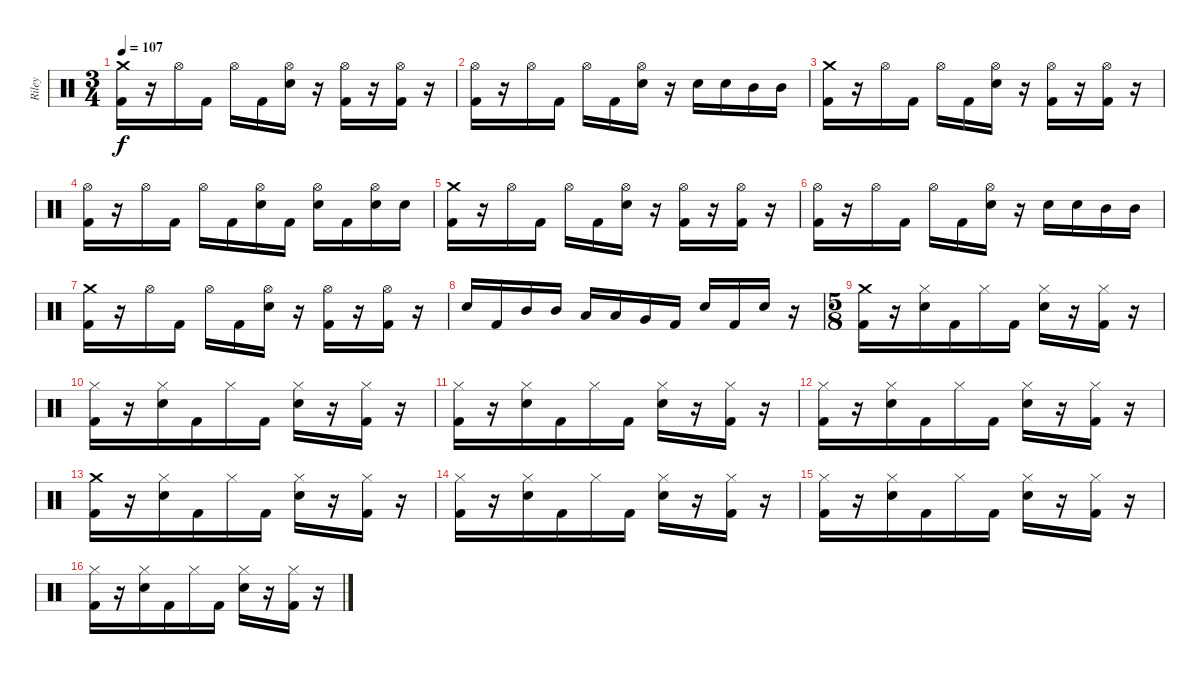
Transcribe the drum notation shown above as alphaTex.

\track ("Riley" "Riley") {instrument percussion}
\staff {score}
\articulation defaults
\ts (3 4)
\tempo 107
\clef neutral
\ks c
("Crash medium (hit)" "Kick (hit) 2").16{dy f} r.16 "Hi-Hat (open)".16 "Kick (hit) 2".16 "Hi-Hat (open)".16 "Kick (hit) 2".16 ("Hi-Hat (open)" "Electric Snare (hit)").16 r.16 ("Hi-Hat (open)" "Kick (hit) 2").16 r.16 ("Hi-Hat (open)" "Kick (hit) 2").16 r.16 |
("Hi-Hat (open)" "Kick (hit) 2").16 r.16 "Hi-Hat (open)".16 "Kick (hit) 2".16 "Hi-Hat (open)".16 "Kick (hit) 2".16 ("Hi-Hat (open)" "Electric Snare (hit)").16 r.16 "Electric Snare (hit)".16 "Electric Snare (hit)".16 "Mid Tom (hit)".16 "Mid Tom (hit)".16 |
("Crash medium (hit)" "Kick (hit) 2").16 r.16 "Hi-Hat (open)".16 "Kick (hit) 2".16 "Hi-Hat (open)".16 "Kick (hit) 2".16 ("Hi-Hat (open)" "Electric Snare (hit)").16 r.16 ("Hi-Hat (open)" "Kick (hit) 2").16 r.16 ("Hi-Hat (open)" "Kick (hit) 2").16 r.16 |
("Hi-Hat (open)" "Kick (hit) 2").16 r.16 "Hi-Hat (open)".16 "Kick (hit) 2".16 "Hi-Hat (open)".16 "Kick (hit) 2".16 ("Hi-Hat (open)" "Electric Snare (hit)").16 "Kick (hit) 2".16 ("Hi-Hat (open)" "Electric Snare (hit)").16 "Kick (hit) 2".16 ("Hi-Hat (open)" "Electric Snare (hit)").16 "Electric Snare (hit)".16 |
("Crash medium (hit)" "Kick (hit) 2").16 r.16 "Hi-Hat (open)".16 "Kick (hit) 2".16 "Hi-Hat (open)".16 "Kick (hit) 2".16 ("Hi-Hat (open)" "Electric Snare (hit)").16 r.16 ("Hi-Hat (open)" "Kick (hit) 2").16 r.16 ("Hi-Hat (open)" "Kick (hit) 2").16 r.16 |
("Hi-Hat (open)" "Kick (hit) 2").16 r.16 "Hi-Hat (open)".16 "Kick (hit) 2".16 "Hi-Hat (open)".16 "Kick (hit) 2".16 ("Hi-Hat (open)" "Electric Snare (hit)").16 r.16 "Electric Snare (hit)".16 "Electric Snare (hit)".16 "Mid Tom (hit)".16 "Mid Tom (hit)".16 |
("Crash medium (hit)" "Kick (hit) 2").16 r.16 "Hi-Hat (open)".16 "Kick (hit) 2".16 "Hi-Hat (open)".16 "Kick (hit) 2".16 ("Hi-Hat (open)" "Electric Snare (hit)").16 r.16 ("Hi-Hat (open)" "Kick (hit) 2").16 r.16 ("Hi-Hat (open)" "Kick (hit) 2").16 r.16 |
"Electric Snare (hit)".16 "Kick (hit) 2".16 "Mid Tom (hit)".16 "Mid Tom (hit)".16 "Low Tom (hit)".16 "Low Tom (hit)".16 "Very Low Tom (hit)".16 "Kick (hit) 2".16 "Electric Snare (hit)".16 "Kick (hit) 2".16 "Electric Snare (hit)".16 r.16 |
\ts (5 8)
("Crash medium (hit)" "Kick (hit) 2").16 r.16 ("Hi-Hat (closed)" "Electric Snare (hit)").16 "Kick (hit) 2".16 "Hi-Hat (closed)".16 "Kick (hit) 2".16 ("Hi-Hat (closed)" "Electric Snare (hit)").16 r.16 ("Hi-Hat (closed)" "Kick (hit) 2").16 r.16 |
("Hi-Hat (closed)" "Kick (hit) 2").16 r.16 ("Hi-Hat (closed)" "Electric Snare (hit)").16 "Kick (hit) 2".16 "Hi-Hat (closed)".16 "Kick (hit) 2".16 ("Hi-Hat (closed)" "Electric Snare (hit)").16 r.16 ("Hi-Hat (closed)" "Kick (hit) 2").16 r.16 |
("Hi-Hat (closed)" "Kick (hit) 2").16 r.16 ("Hi-Hat (closed)" "Electric Snare (hit)").16 "Kick (hit) 2".16 "Hi-Hat (closed)".16 "Kick (hit) 2".16 ("Hi-Hat (closed)" "Electric Snare (hit)").16 r.16 ("Hi-Hat (closed)" "Kick (hit) 2").16 r.16 |
("Hi-Hat (closed)" "Kick (hit) 2").16 r.16 ("Hi-Hat (closed)" "Electric Snare (hit)").16 "Kick (hit) 2".16 "Hi-Hat (closed)".16 "Kick (hit) 2".16 ("Hi-Hat (closed)" "Electric Snare (hit)").16 r.16 ("Hi-Hat (closed)" "Kick (hit) 2").16 r.16 |
("Crash medium (hit)" "Kick (hit) 2").16 r.16 ("Hi-Hat (closed)" "Electric Snare (hit)").16 "Kick (hit) 2".16 "Hi-Hat (closed)".16 "Kick (hit) 2".16 ("Hi-Hat (closed)" "Electric Snare (hit)").16 r.16 ("Hi-Hat (closed)" "Kick (hit) 2").16 r.16 |
("Hi-Hat (closed)" "Kick (hit) 2").16 r.16 ("Hi-Hat (closed)" "Electric Snare (hit)").16 "Kick (hit) 2".16 "Hi-Hat (closed)".16 "Kick (hit) 2".16 ("Hi-Hat (closed)" "Electric Snare (hit)").16 r.16 ("Hi-Hat (closed)" "Kick (hit) 2").16 r.16 |
("Hi-Hat (closed)" "Kick (hit) 2").16 r.16 ("Hi-Hat (closed)" "Electric Snare (hit)").16 "Kick (hit) 2".16 "Hi-Hat (closed)".16 "Kick (hit) 2".16 ("Hi-Hat (closed)" "Electric Snare (hit)").16 r.16 ("Hi-Hat (closed)" "Kick (hit) 2").16 r.16 |
("Hi-Hat (closed)" "Kick (hit) 2").16 r.16 ("Hi-Hat (closed)" "Electric Snare (hit)").16 "Kick (hit) 2".16 "Hi-Hat (closed)".16 "Kick (hit) 2".16 ("Hi-Hat (closed)" "Electric Snare (hit)").16 r.16 ("Hi-Hat (closed)" "Kick (hit) 2").16 r.16
